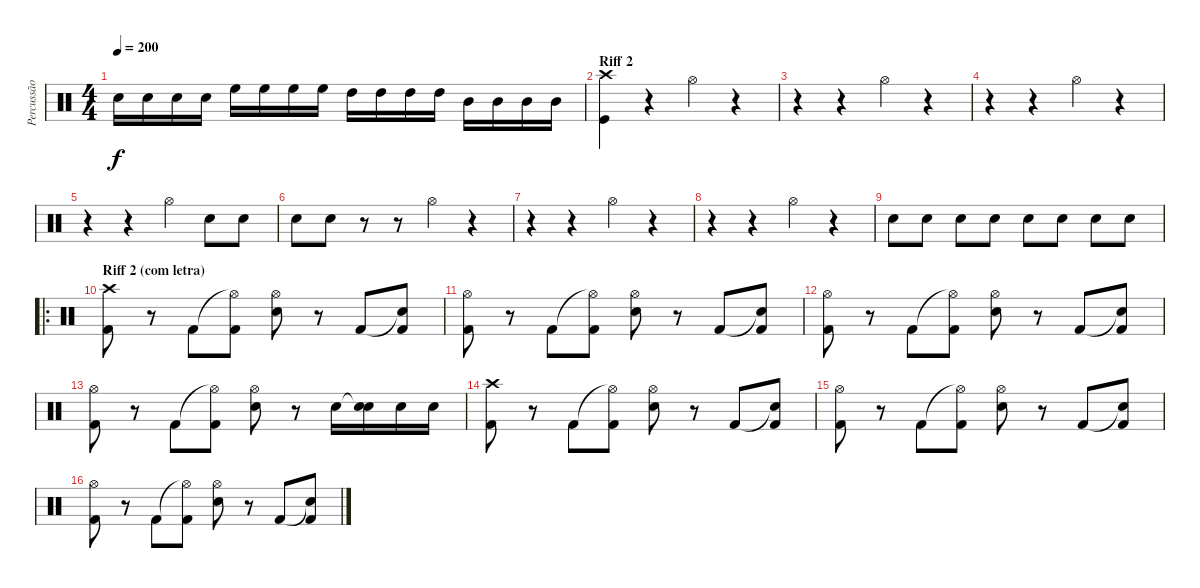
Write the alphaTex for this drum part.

\track ("Percussão" "Percussão") {instrument percussion}
\staff {score}
\articulation defaults
\ts (4 4)
\tempo 200
\clef neutral
\ks c "Electric Snare (hit)".16{dy f} "Electric Snare (hit)".16 "Electric Snare (hit)".16 "Electric Snare (hit)".16 "High Floor Tom (hit)".16 "High Floor Tom (hit)".16 "High Floor Tom (hit)".16 "High Floor Tom (hit)".16 "High Tom (hit)".16 "High Tom (hit)".16 "High Tom (hit)".16 "High Tom (hit)".16 "Mid Tom (hit)".16 "Mid Tom (hit)".16 "Mid Tom (hit)".16 "Mid Tom (hit)".16
|
\section ("" "Riff 2")
("Crash high (hit)" "Kick (hit)").4 r.4 "Hi-Hat (open)".4 r.4 |
r.4 r.4 "Hi-Hat (open)".4 r.4 |
r.4 r.4 "Hi-Hat (open)".4 r.4 |
r.4 r.4 "Hi-Hat (open)".4 "Electric Snare (hit)".8 "Electric Snare (hit)".8 |
"Electric Snare (hit)".8 "Electric Snare (hit)".8 r.8 r.8 "Hi-Hat (open)".4 r.4 |
r.4 r.4 "Hi-Hat (open)".4 r.4 |
r.4 r.4 "Hi-Hat (open)".4 r.4 |
"Electric Snare (hit)".8 "Electric Snare (hit)".8 "Electric Snare (hit)".8 "Electric Snare (hit)".8 "Electric Snare (hit)".8 "Electric Snare (hit)".8 "Electric Snare (hit)".8 "Electric Snare (hit)".8 |
\ro
\section ("" "Riff 2 (com letra)")
("Crash high (hit)" "Kick (hit) 2").8 r.8 "Kick (hit) 2".8 ("Hi-Hat (open)"{t} "Kick (hit) 2").8 ("Hi-Hat (open)" "Electric Snare (hit)").8 r.8 "Kick (hit) 2".8 ("Snare (hit)"{t} "Kick (hit) 2").8 |
("Hi-Hat (open)" "Kick (hit) 2").8 r.8 "Kick (hit) 2".8 ("Hi-Hat (open)"{t} "Kick (hit) 2").8 ("Hi-Hat (open)" "Electric Snare (hit)").8 r.8 "Kick (hit) 2".8 ("Snare (hit)"{t} "Kick (hit) 2").8 |
("Hi-Hat (open)" "Kick (hit) 2").8 r.8 "Kick (hit) 2".8 ("Hi-Hat (open)"{t} "Kick (hit) 2").8 ("Hi-Hat (open)" "Electric Snare (hit)").8 r.8 "Kick (hit) 2".8 ("Snare (hit)"{t} "Kick (hit) 2").8 |
("Hi-Hat (open)" "Kick (hit) 2").8 r.8 "Kick (hit) 2".8 ("Hi-Hat (open)"{t} "Kick (hit) 2").8 ("Hi-Hat (open)" "Electric Snare (hit)").8 r.8 "Electric Snare (hit)".16 ("Snare (hit)"{t} "Electric Snare (hit)").16 "Electric Snare (hit)".16 "Electric Snare (hit)".16 |
("Crash high (hit)" "Kick (hit) 2").8 r.8 "Kick (hit) 2".8 ("Hi-Hat (open)"{t} "Kick (hit) 2").8 ("Hi-Hat (open)" "Electric Snare (hit)").8 r.8 "Kick (hit) 2".8 ("Snare (hit)"{t} "Kick (hit) 2").8 |
("Hi-Hat (open)" "Kick (hit) 2").8 r.8 "Kick (hit) 2".8 ("Hi-Hat (open)"{t} "Kick (hit) 2").8 ("Hi-Hat (open)" "Electric Snare (hit)").8 r.8 "Kick (hit) 2".8 ("Snare (hit)"{t} "Kick (hit) 2").8 |
("Hi-Hat (open)" "Kick (hit) 2").8 r.8 "Kick (hit) 2".8 ("Hi-Hat (open)"{t} "Kick (hit) 2").8 ("Hi-Hat (open)" "Electric Snare (hit)").8 r.8 "Kick (hit) 2".8 ("Snare (hit)"{t} "Kick (hit) 2").8
